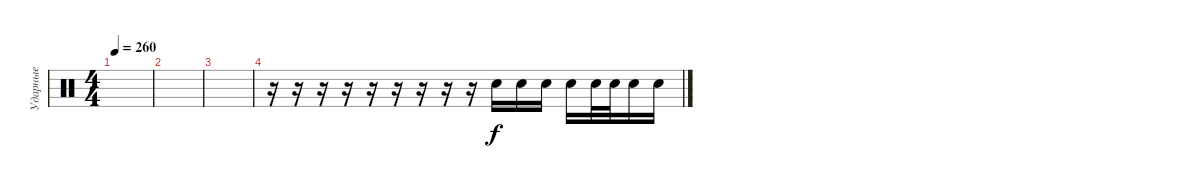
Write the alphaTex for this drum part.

\track ("Ударные" "Ударные") {instrument percussion}
\staff {score}
\articulation defaults
\ts (4 4)
\tempo 260
\clef neutral
\ks c
|
|
|
r.16 r.16 r.16 r.16 r.16 r.16 r.16 r.16 r.16 "Electric Snare (hit)".16 "Electric Snare (hit)".16 "Electric Snare (hit)".16 "Electric Snare (hit)".16 "Electric Snare (hit)".32 "Electric Snare (hit)".32 "Electric Snare (hit)".16 "Electric Snare (hit)".16
